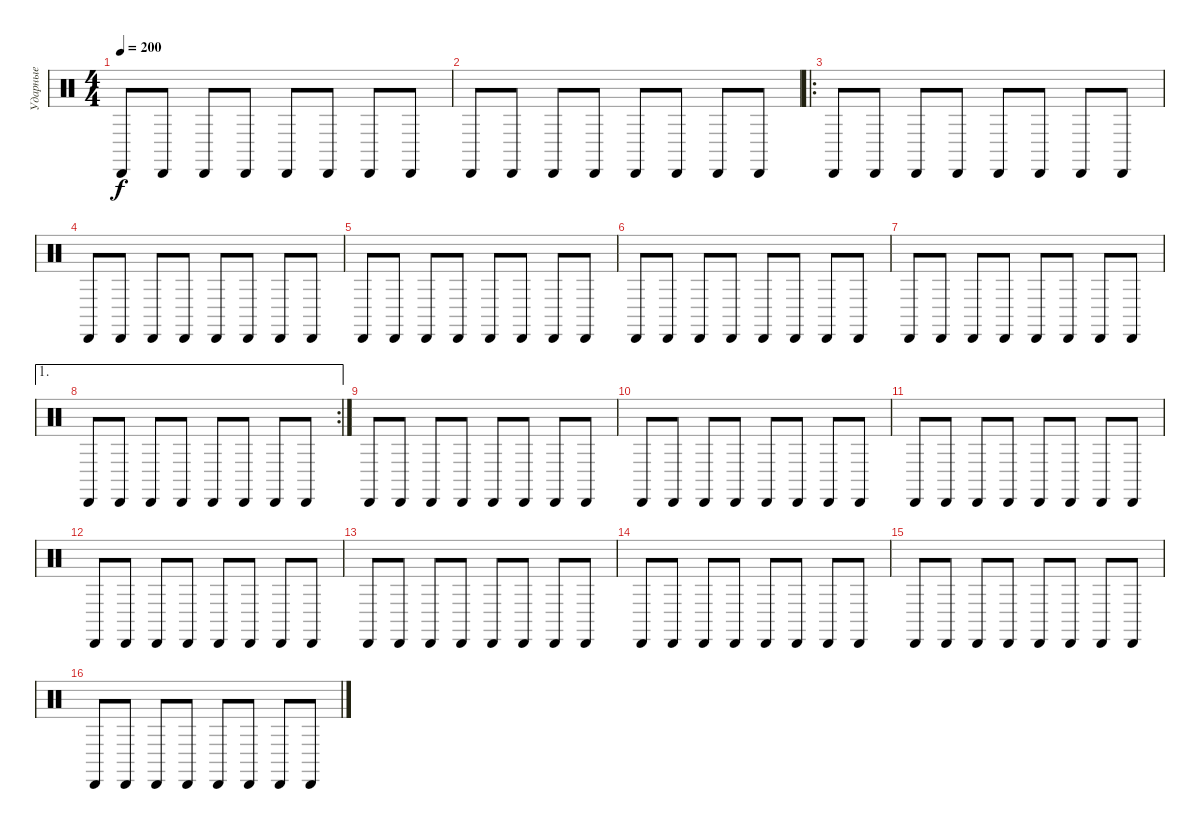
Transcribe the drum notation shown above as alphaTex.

\track ("Ударные" "Ударные") {instrument percussion}
\staff {score}
\articulation defaults
\ts (4 4)
\tempo 200
\clef neutral
\ks c "Cabasa (hit)".8{dy f} "Cabasa (hit)".8 "Cabasa (hit)".8 "Cabasa (hit)".8 "Cabasa (hit)".8 "Cabasa (hit)".8 "Cabasa (hit)".8 "Cabasa (hit)".8
|
"Cabasa (hit)".8 "Cabasa (hit)".8 "Cabasa (hit)".8 "Cabasa (hit)".8 "Cabasa (hit)".8 "Cabasa (hit)".8 "Cabasa (hit)".8 "Cabasa (hit)".8 |
\ro "Cabasa (hit)".8 "Cabasa (hit)".8 "Cabasa (hit)".8 "Cabasa (hit)".8 "Cabasa (hit)".8 "Cabasa (hit)".8 "Cabasa (hit)".8 "Cabasa (hit)".8
|
"Cabasa (hit)".8 "Cabasa (hit)".8 "Cabasa (hit)".8 "Cabasa (hit)".8 "Cabasa (hit)".8 "Cabasa (hit)".8 "Cabasa (hit)".8 "Cabasa (hit)".8 |
"Cabasa (hit)".8 "Cabasa (hit)".8 "Cabasa (hit)".8 "Cabasa (hit)".8 "Cabasa (hit)".8 "Cabasa (hit)".8 "Cabasa (hit)".8 "Cabasa (hit)".8 |
"Cabasa (hit)".8 "Cabasa (hit)".8 "Cabasa (hit)".8 "Cabasa (hit)".8 "Cabasa (hit)".8 "Cabasa (hit)".8 "Cabasa (hit)".8 "Cabasa (hit)".8 |
"Cabasa (hit)".8 "Cabasa (hit)".8 "Cabasa (hit)".8 "Cabasa (hit)".8 "Cabasa (hit)".8 "Cabasa (hit)".8 "Cabasa (hit)".8 "Cabasa (hit)".8 |
\ae 1
\rc 2 "Cabasa (hit)".8 "Cabasa (hit)".8 "Cabasa (hit)".8 "Cabasa (hit)".8 "Cabasa (hit)".8 "Cabasa (hit)".8 "Cabasa (hit)".8 "Cabasa (hit)".8
|
"Cabasa (hit)".8 "Cabasa (hit)".8 "Cabasa (hit)".8 "Cabasa (hit)".8 "Cabasa (hit)".8 "Cabasa (hit)".8 "Cabasa (hit)".8 "Cabasa (hit)".8 |
"Cabasa (hit)".8 "Cabasa (hit)".8 "Cabasa (hit)".8 "Cabasa (hit)".8 "Cabasa (hit)".8 "Cabasa (hit)".8 "Cabasa (hit)".8 "Cabasa (hit)".8 |
"Cabasa (hit)".8 "Cabasa (hit)".8 "Cabasa (hit)".8 "Cabasa (hit)".8 "Cabasa (hit)".8 "Cabasa (hit)".8 "Cabasa (hit)".8 "Cabasa (hit)".8 |
"Cabasa (hit)".8 "Cabasa (hit)".8 "Cabasa (hit)".8 "Cabasa (hit)".8 "Cabasa (hit)".8 "Cabasa (hit)".8 "Cabasa (hit)".8 "Cabasa (hit)".8 |
"Cabasa (hit)".8 "Cabasa (hit)".8 "Cabasa (hit)".8 "Cabasa (hit)".8 "Cabasa (hit)".8 "Cabasa (hit)".8 "Cabasa (hit)".8 "Cabasa (hit)".8 |
"Cabasa (hit)".8 "Cabasa (hit)".8 "Cabasa (hit)".8 "Cabasa (hit)".8 "Cabasa (hit)".8 "Cabasa (hit)".8 "Cabasa (hit)".8 "Cabasa (hit)".8 |
"Cabasa (hit)".8 "Cabasa (hit)".8 "Cabasa (hit)".8 "Cabasa (hit)".8 "Cabasa (hit)".8 "Cabasa (hit)".8 "Cabasa (hit)".8 "Cabasa (hit)".8 |
"Cabasa (hit)".8 "Cabasa (hit)".8 "Cabasa (hit)".8 "Cabasa (hit)".8 "Cabasa (hit)".8 "Cabasa (hit)".8 "Cabasa (hit)".8 "Cabasa (hit)".8
